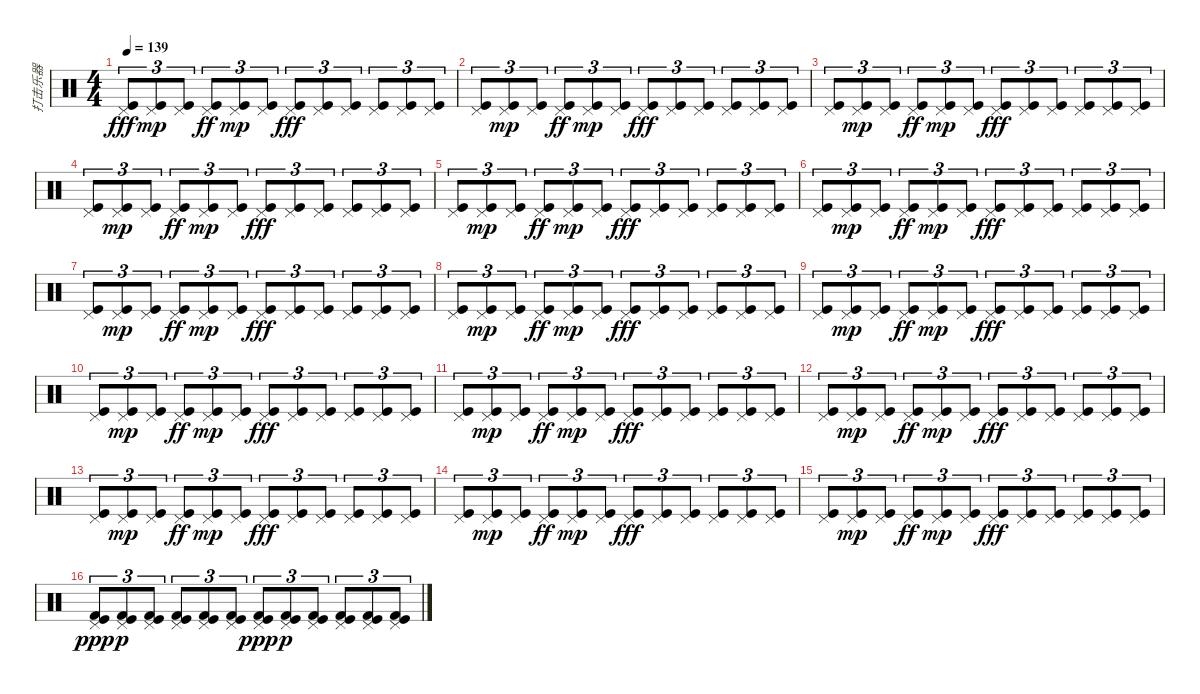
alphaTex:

\track ("打击乐器" "打击乐器") {instrument percussion}
\staff {score}
\articulation defaults
\ts (4 4)
\tempo 139
\clef neutral
\ks c
("Kick (hit)" "Pedal Hi-Hat (hit)").8{tu (3 2) dy fff} ("Kick (hit)" "Pedal Hi-Hat (hit)").8{tu (3 2) dy mp} ("Kick (hit)" "Pedal Hi-Hat (hit)").8{tu (3 2)} ("Kick (hit)" "Pedal Hi-Hat (hit)").8{tu (3 2) dy ff} ("Kick (hit)" "Pedal Hi-Hat (hit)").8{tu (3 2) dy mp} ("Kick (hit)" "Pedal Hi-Hat (hit)").8{tu (3 2)} ("Kick (hit)" "Pedal Hi-Hat (hit)").8{tu (3 2) dy fff} ("Kick (hit)" "Pedal Hi-Hat (hit)").8{tu (3 2)} ("Kick (hit)" "Pedal Hi-Hat (hit)").8{tu (3 2)} ("Kick (hit)" "Pedal Hi-Hat (hit)").8{tu (3 2)} ("Kick (hit)" "Pedal Hi-Hat (hit)").8{tu (3 2)} ("Kick (hit)" "Pedal Hi-Hat (hit)").8{tu (3 2)} |
("Kick (hit)" "Pedal Hi-Hat (hit)").8{tu (3 2)} ("Kick (hit)" "Pedal Hi-Hat (hit)").8{tu (3 2) dy mp} ("Kick (hit)" "Pedal Hi-Hat (hit)").8{tu (3 2)} ("Kick (hit)" "Pedal Hi-Hat (hit)").8{tu (3 2) dy ff} ("Kick (hit)" "Pedal Hi-Hat (hit)").8{tu (3 2) dy mp} ("Kick (hit)" "Pedal Hi-Hat (hit)").8{tu (3 2)} ("Kick (hit)" "Pedal Hi-Hat (hit)").8{tu (3 2) dy fff} ("Kick (hit)" "Pedal Hi-Hat (hit)").8{tu (3 2)} ("Kick (hit)" "Pedal Hi-Hat (hit)").8{tu (3 2)} ("Kick (hit)" "Pedal Hi-Hat (hit)").8{tu (3 2)} ("Kick (hit)" "Pedal Hi-Hat (hit)").8{tu (3 2)} ("Kick (hit)" "Pedal Hi-Hat (hit)").8{tu (3 2)} |
("Kick (hit)" "Pedal Hi-Hat (hit)").8{tu (3 2)} ("Kick (hit)" "Pedal Hi-Hat (hit)").8{tu (3 2) dy mp} ("Kick (hit)" "Pedal Hi-Hat (hit)").8{tu (3 2)} ("Kick (hit)" "Pedal Hi-Hat (hit)").8{tu (3 2) dy ff} ("Kick (hit)" "Pedal Hi-Hat (hit)").8{tu (3 2) dy mp} ("Kick (hit)" "Pedal Hi-Hat (hit)").8{tu (3 2)} ("Kick (hit)" "Pedal Hi-Hat (hit)").8{tu (3 2) dy fff} ("Kick (hit)" "Pedal Hi-Hat (hit)").8{tu (3 2)} ("Kick (hit)" "Pedal Hi-Hat (hit)").8{tu (3 2)} ("Kick (hit)" "Pedal Hi-Hat (hit)").8{tu (3 2)} ("Kick (hit)" "Pedal Hi-Hat (hit)").8{tu (3 2)} ("Kick (hit)" "Pedal Hi-Hat (hit)").8{tu (3 2)} |
("Kick (hit)" "Pedal Hi-Hat (hit)").8{tu (3 2)} ("Kick (hit)" "Pedal Hi-Hat (hit)").8{tu (3 2) dy mp} ("Kick (hit)" "Pedal Hi-Hat (hit)").8{tu (3 2)} ("Kick (hit)" "Pedal Hi-Hat (hit)").8{tu (3 2) dy ff} ("Kick (hit)" "Pedal Hi-Hat (hit)").8{tu (3 2) dy mp} ("Kick (hit)" "Pedal Hi-Hat (hit)").8{tu (3 2)} ("Kick (hit)" "Pedal Hi-Hat (hit)").8{tu (3 2) dy fff} ("Kick (hit)" "Pedal Hi-Hat (hit)").8{tu (3 2)} ("Kick (hit)" "Pedal Hi-Hat (hit)").8{tu (3 2)} ("Kick (hit)" "Pedal Hi-Hat (hit)").8{tu (3 2)} ("Kick (hit)" "Pedal Hi-Hat (hit)").8{tu (3 2)} ("Kick (hit)" "Pedal Hi-Hat (hit)").8{tu (3 2)} |
("Kick (hit)" "Pedal Hi-Hat (hit)").8{tu (3 2)} ("Kick (hit)" "Pedal Hi-Hat (hit)").8{tu (3 2) dy mp} ("Kick (hit)" "Pedal Hi-Hat (hit)").8{tu (3 2)} ("Kick (hit)" "Pedal Hi-Hat (hit)").8{tu (3 2) dy ff} ("Kick (hit)" "Pedal Hi-Hat (hit)").8{tu (3 2) dy mp} ("Kick (hit)" "Pedal Hi-Hat (hit)").8{tu (3 2)} ("Kick (hit)" "Pedal Hi-Hat (hit)").8{tu (3 2) dy fff} ("Kick (hit)" "Pedal Hi-Hat (hit)").8{tu (3 2)} ("Kick (hit)" "Pedal Hi-Hat (hit)").8{tu (3 2)} ("Kick (hit)" "Pedal Hi-Hat (hit)").8{tu (3 2)} ("Kick (hit)" "Pedal Hi-Hat (hit)").8{tu (3 2)} ("Kick (hit)" "Pedal Hi-Hat (hit)").8{tu (3 2)} |
("Kick (hit)" "Pedal Hi-Hat (hit)").8{tu (3 2)} ("Kick (hit)" "Pedal Hi-Hat (hit)").8{tu (3 2) dy mp} ("Kick (hit)" "Pedal Hi-Hat (hit)").8{tu (3 2)} ("Kick (hit)" "Pedal Hi-Hat (hit)").8{tu (3 2) dy ff} ("Kick (hit)" "Pedal Hi-Hat (hit)").8{tu (3 2) dy mp} ("Kick (hit)" "Pedal Hi-Hat (hit)").8{tu (3 2)} ("Kick (hit)" "Pedal Hi-Hat (hit)").8{tu (3 2) dy fff} ("Kick (hit)" "Pedal Hi-Hat (hit)").8{tu (3 2)} ("Kick (hit)" "Pedal Hi-Hat (hit)").8{tu (3 2)} ("Kick (hit)" "Pedal Hi-Hat (hit)").8{tu (3 2)} ("Kick (hit)" "Pedal Hi-Hat (hit)").8{tu (3 2)} ("Kick (hit)" "Pedal Hi-Hat (hit)").8{tu (3 2)} |
("Kick (hit)" "Pedal Hi-Hat (hit)").8{tu (3 2)} ("Kick (hit)" "Pedal Hi-Hat (hit)").8{tu (3 2) dy mp} ("Kick (hit)" "Pedal Hi-Hat (hit)").8{tu (3 2)} ("Kick (hit)" "Pedal Hi-Hat (hit)").8{tu (3 2) dy ff} ("Kick (hit)" "Pedal Hi-Hat (hit)").8{tu (3 2) dy mp} ("Kick (hit)" "Pedal Hi-Hat (hit)").8{tu (3 2)} ("Kick (hit)" "Pedal Hi-Hat (hit)").8{tu (3 2) dy fff} ("Kick (hit)" "Pedal Hi-Hat (hit)").8{tu (3 2)} ("Kick (hit)" "Pedal Hi-Hat (hit)").8{tu (3 2)} ("Kick (hit)" "Pedal Hi-Hat (hit)").8{tu (3 2)} ("Kick (hit)" "Pedal Hi-Hat (hit)").8{tu (3 2)} ("Kick (hit)" "Pedal Hi-Hat (hit)").8{tu (3 2)} |
("Kick (hit)" "Pedal Hi-Hat (hit)").8{tu (3 2)} ("Kick (hit)" "Pedal Hi-Hat (hit)").8{tu (3 2) dy mp} ("Kick (hit)" "Pedal Hi-Hat (hit)").8{tu (3 2)} ("Kick (hit)" "Pedal Hi-Hat (hit)").8{tu (3 2) dy ff} ("Kick (hit)" "Pedal Hi-Hat (hit)").8{tu (3 2) dy mp} ("Kick (hit)" "Pedal Hi-Hat (hit)").8{tu (3 2)} ("Kick (hit)" "Pedal Hi-Hat (hit)").8{tu (3 2) dy fff} ("Kick (hit)" "Pedal Hi-Hat (hit)").8{tu (3 2)} ("Kick (hit)" "Pedal Hi-Hat (hit)").8{tu (3 2)} ("Kick (hit)" "Pedal Hi-Hat (hit)").8{tu (3 2)} ("Kick (hit)" "Pedal Hi-Hat (hit)").8{tu (3 2)} ("Kick (hit)" "Pedal Hi-Hat (hit)").8{tu (3 2)} |
("Kick (hit)" "Pedal Hi-Hat (hit)").8{tu (3 2)} ("Kick (hit)" "Pedal Hi-Hat (hit)").8{tu (3 2) dy mp} ("Kick (hit)" "Pedal Hi-Hat (hit)").8{tu (3 2)} ("Kick (hit)" "Pedal Hi-Hat (hit)").8{tu (3 2) dy ff} ("Kick (hit)" "Pedal Hi-Hat (hit)").8{tu (3 2) dy mp} ("Kick (hit)" "Pedal Hi-Hat (hit)").8{tu (3 2)} ("Kick (hit)" "Pedal Hi-Hat (hit)").8{tu (3 2) dy fff} ("Kick (hit)" "Pedal Hi-Hat (hit)").8{tu (3 2)} ("Kick (hit)" "Pedal Hi-Hat (hit)").8{tu (3 2)} ("Kick (hit)" "Pedal Hi-Hat (hit)").8{tu (3 2)} ("Kick (hit)" "Pedal Hi-Hat (hit)").8{tu (3 2)} ("Kick (hit)" "Pedal Hi-Hat (hit)").8{tu (3 2)} |
("Kick (hit)" "Pedal Hi-Hat (hit)").8{tu (3 2)} ("Kick (hit)" "Pedal Hi-Hat (hit)").8{tu (3 2) dy mp} ("Kick (hit)" "Pedal Hi-Hat (hit)").8{tu (3 2)} ("Kick (hit)" "Pedal Hi-Hat (hit)").8{tu (3 2) dy ff} ("Kick (hit)" "Pedal Hi-Hat (hit)").8{tu (3 2) dy mp} ("Kick (hit)" "Pedal Hi-Hat (hit)").8{tu (3 2)} ("Kick (hit)" "Pedal Hi-Hat (hit)").8{tu (3 2) dy fff} ("Kick (hit)" "Pedal Hi-Hat (hit)").8{tu (3 2)} ("Kick (hit)" "Pedal Hi-Hat (hit)").8{tu (3 2)} ("Kick (hit)" "Pedal Hi-Hat (hit)").8{tu (3 2)} ("Kick (hit)" "Pedal Hi-Hat (hit)").8{tu (3 2)} ("Kick (hit)" "Pedal Hi-Hat (hit)").8{tu (3 2)} |
("Kick (hit)" "Pedal Hi-Hat (hit)").8{tu (3 2)} ("Kick (hit)" "Pedal Hi-Hat (hit)").8{tu (3 2) dy mp} ("Kick (hit)" "Pedal Hi-Hat (hit)").8{tu (3 2)} ("Kick (hit)" "Pedal Hi-Hat (hit)").8{tu (3 2) dy ff} ("Kick (hit)" "Pedal Hi-Hat (hit)").8{tu (3 2) dy mp} ("Kick (hit)" "Pedal Hi-Hat (hit)").8{tu (3 2)} ("Kick (hit)" "Pedal Hi-Hat (hit)").8{tu (3 2) dy fff} ("Kick (hit)" "Pedal Hi-Hat (hit)").8{tu (3 2)} ("Kick (hit)" "Pedal Hi-Hat (hit)").8{tu (3 2)} ("Kick (hit)" "Pedal Hi-Hat (hit)").8{tu (3 2)} ("Kick (hit)" "Pedal Hi-Hat (hit)").8{tu (3 2)} ("Kick (hit)" "Pedal Hi-Hat (hit)").8{tu (3 2)} |
("Kick (hit)" "Pedal Hi-Hat (hit)").8{tu (3 2)} ("Kick (hit)" "Pedal Hi-Hat (hit)").8{tu (3 2) dy mp} ("Kick (hit)" "Pedal Hi-Hat (hit)").8{tu (3 2)} ("Kick (hit)" "Pedal Hi-Hat (hit)").8{tu (3 2) dy ff} ("Kick (hit)" "Pedal Hi-Hat (hit)").8{tu (3 2) dy mp} ("Kick (hit)" "Pedal Hi-Hat (hit)").8{tu (3 2)} ("Kick (hit)" "Pedal Hi-Hat (hit)").8{tu (3 2) dy fff} ("Kick (hit)" "Pedal Hi-Hat (hit)").8{tu (3 2)} ("Kick (hit)" "Pedal Hi-Hat (hit)").8{tu (3 2)} ("Kick (hit)" "Pedal Hi-Hat (hit)").8{tu (3 2)} ("Kick (hit)" "Pedal Hi-Hat (hit)").8{tu (3 2)} ("Kick (hit)" "Pedal Hi-Hat (hit)").8{tu (3 2)} |
("Kick (hit)" "Pedal Hi-Hat (hit)").8{tu (3 2)} ("Kick (hit)" "Pedal Hi-Hat (hit)").8{tu (3 2) dy mp} ("Kick (hit)" "Pedal Hi-Hat (hit)").8{tu (3 2)} ("Kick (hit)" "Pedal Hi-Hat (hit)").8{tu (3 2) dy ff} ("Kick (hit)" "Pedal Hi-Hat (hit)").8{tu (3 2) dy mp} ("Kick (hit)" "Pedal Hi-Hat (hit)").8{tu (3 2)} ("Kick (hit)" "Pedal Hi-Hat (hit)").8{tu (3 2) dy fff} ("Kick (hit)" "Pedal Hi-Hat (hit)").8{tu (3 2)} ("Kick (hit)" "Pedal Hi-Hat (hit)").8{tu (3 2)} ("Kick (hit)" "Pedal Hi-Hat (hit)").8{tu (3 2)} ("Kick (hit)" "Pedal Hi-Hat (hit)").8{tu (3 2)} ("Kick (hit)" "Pedal Hi-Hat (hit)").8{tu (3 2)} |
("Kick (hit)" "Pedal Hi-Hat (hit)").8{tu (3 2)} ("Kick (hit)" "Pedal Hi-Hat (hit)").8{tu (3 2) dy mp} ("Kick (hit)" "Pedal Hi-Hat (hit)").8{tu (3 2)} ("Kick (hit)" "Pedal Hi-Hat (hit)").8{tu (3 2) dy ff} ("Kick (hit)" "Pedal Hi-Hat (hit)").8{tu (3 2) dy mp} ("Kick (hit)" "Pedal Hi-Hat (hit)").8{tu (3 2)} ("Kick (hit)" "Pedal Hi-Hat (hit)").8{tu (3 2) dy fff} ("Kick (hit)" "Pedal Hi-Hat (hit)").8{tu (3 2)} ("Kick (hit)" "Pedal Hi-Hat (hit)").8{tu (3 2)} ("Kick (hit)" "Pedal Hi-Hat (hit)").8{tu (3 2)} ("Kick (hit)" "Pedal Hi-Hat (hit)").8{tu (3 2)} ("Kick (hit)" "Pedal Hi-Hat (hit)").8{tu (3 2)} |
("Kick (hit)" "Pedal Hi-Hat (hit)").8{tu (3 2)} ("Kick (hit)" "Pedal Hi-Hat (hit)").8{tu (3 2) dy mp} ("Kick (hit)" "Pedal Hi-Hat (hit)").8{tu (3 2)} ("Kick (hit)" "Pedal Hi-Hat (hit)").8{tu (3 2) dy ff} ("Kick (hit)" "Pedal Hi-Hat (hit)").8{tu (3 2) dy mp} ("Kick (hit)" "Pedal Hi-Hat (hit)").8{tu (3 2)} ("Kick (hit)" "Pedal Hi-Hat (hit)").8{tu (3 2) dy fff} ("Kick (hit)" "Pedal Hi-Hat (hit)").8{tu (3 2)} ("Kick (hit)" "Pedal Hi-Hat (hit)").8{tu (3 2)} ("Kick (hit)" "Pedal Hi-Hat (hit)").8{tu (3 2)} ("Kick (hit)" "Pedal Hi-Hat (hit)").8{tu (3 2)} ("Kick (hit)" "Pedal Hi-Hat (hit)").8{tu (3 2)} |
("Kick (hit)" "Pedal Hi-Hat (hit)" "Kick (hit) 2").8{tu (3 2) dy ppp} ("Kick (hit)" "Pedal Hi-Hat (hit)" "Kick (hit) 2").8{tu (3 2) dy p} ("Kick (hit)" "Pedal Hi-Hat (hit)" "Kick (hit) 2").8{tu (3 2)} ("Kick (hit)" "Pedal Hi-Hat (hit)" "Kick (hit) 2").8{tu (3 2)} ("Kick (hit)" "Pedal Hi-Hat (hit)" "Kick (hit) 2").8{tu (3 2)} ("Kick (hit)" "Pedal Hi-Hat (hit)" "Kick (hit) 2").8{tu (3 2)} ("Kick (hit)" "Pedal Hi-Hat (hit)" "Kick (hit) 2").8{tu (3 2) dy ppp} ("Kick (hit)" "Pedal Hi-Hat (hit)" "Kick (hit) 2").8{tu (3 2) dy p} ("Kick (hit)" "Pedal Hi-Hat (hit)" "Kick (hit) 2").8{tu (3 2)} ("Kick (hit)" "Pedal Hi-Hat (hit)" "Kick (hit) 2").8{tu (3 2)} ("Kick (hit)" "Pedal Hi-Hat (hit)" "Kick (hit) 2").8{tu (3 2)} ("Kick (hit)" "Pedal Hi-Hat (hit)" "Kick (hit) 2").8{tu (3 2)}
